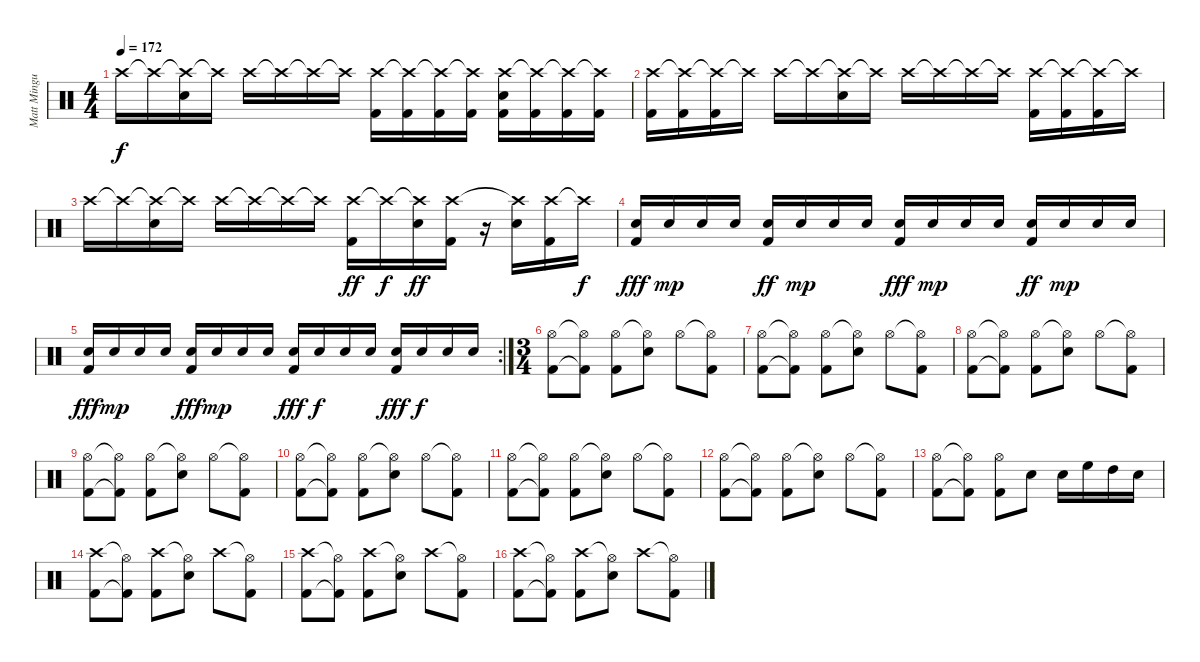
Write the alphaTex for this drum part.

\track ("Matt Mingus" "Matt Mingu") {instrument percussion}
\staff {score}
\articulation defaults
\ts (4 4)
\tempo 172
\clef neutral
\ks c "Crash high (hit)".16{dy f} "Crash high (hit)"{t}.16
("Crash high (hit)"{t} "Electric Snare (hit)").16 "Crash high (hit)"{t}.16 "Crash high (hit)".16 "Crash high (hit)"{t}.16 "Crash high (hit)"{t}.16 "Crash high (hit)"{t}.16 ("Crash high (hit)" "Kick (hit) 2").16 ("Crash high (hit)"{t} "Kick (hit) 2").16 ("Crash high (hit)"{t} "Kick (hit) 2").16 ("Crash high (hit)"{t} "Kick (hit) 2").16 ("Crash high (hit)" "Electric Snare (hit)" "Kick (hit) 2").16 ("Crash high (hit)"{t} "Kick (hit) 2").16 ("Crash high (hit)"{t} "Kick (hit) 2").16 ("Crash high (hit)"{t} "Kick (hit) 2").16 |
("Crash high (hit)" "Kick (hit) 2").16 ("Crash high (hit)"{t} "Kick (hit) 2").16 ("Crash high (hit)"{t} "Kick (hit) 2").16 "Crash high (hit)"{t}.16 "Crash high (hit)".16 "Crash high (hit)"{t}.16 ("Crash high (hit)"{t} "Electric Snare (hit)").16 "Crash high (hit)"{t}.16 "Crash high (hit)".16 "Crash high (hit)"{t}.16 "Crash high (hit)"{t}.16 "Crash high (hit)"{t}.16 ("Crash high (hit)" "Kick (hit) 2").16 ("Crash high (hit)"{t} "Kick (hit) 2").16 ("Crash high (hit)"{t} "Kick (hit) 2").16 "Crash high (hit)"{t}.16 |
"Crash high (hit)".16 "Crash high (hit)"{t}.16 ("Crash high (hit)"{t} "Electric Snare (hit)").16 "Crash high (hit)"{t}.16 "Crash high (hit)".16 "Crash high (hit)"{t}.16 "Crash high (hit)"{t}.16 "Crash high (hit)"{t}.16 ("Crash high (hit)" "Kick (hit) 2").16{dy ff} "Crash high (hit)"{t}.16{dy f} ("Crash high (hit)"{t} "Electric Snare (hit)").16{dy ff} ("Crash high (hit)" "Kick (hit) 2").16 r.16 ("Crash high (hit)"{t} "Electric Snare (hit)").16 ("Crash high (hit)" "Kick (hit) 2").16 "Crash high (hit)"{t}.16{dy f} |
("Electric Snare (hit)" "Kick (hit) 2").16{dy fff} "Electric Snare (hit)".16{dy mp} "Electric Snare (hit)".16 "Electric Snare (hit)".16 ("Electric Snare (hit)" "Kick (hit) 2").16{dy ff} "Electric Snare (hit)".16{dy mp} "Electric Snare (hit)".16 "Electric Snare (hit)".16 ("Electric Snare (hit)" "Kick (hit) 2").16{dy fff} "Electric Snare (hit)".16{dy mp} "Electric Snare (hit)".16 "Electric Snare (hit)".16 ("Electric Snare (hit)" "Kick (hit) 2").16{dy ff} "Electric Snare (hit)".16{dy mp} "Electric Snare (hit)".16 "Electric Snare (hit)".16 |
\rc 2
("Electric Snare (hit)" "Kick (hit) 2").16{dy fff} "Electric Snare (hit)".16{dy mp} "Electric Snare (hit)".16 "Electric Snare (hit)".16 ("Electric Snare (hit)" "Kick (hit) 2").16{dy fff} "Electric Snare (hit)".16{dy mp} "Electric Snare (hit)".16 "Electric Snare (hit)".16 ("Electric Snare (hit)" "Kick (hit) 2").16{dy fff} "Electric Snare (hit)".16{dy f} "Electric Snare (hit)".16 "Electric Snare (hit)".16 ("Electric Snare (hit)" "Kick (hit) 2").16{dy fff} "Electric Snare (hit)".16{dy f} "Electric Snare (hit)".16 "Electric Snare (hit)".16 |
\ts (3 4)
("Hi-Hat (open)" "Kick (hit) 2").8 ("Hi-Hat (open)"{t} "Kick (hit) 2"{t}).8 ("Hi-Hat (open)" "Kick (hit) 2").8 ("Hi-Hat (open)"{t} "Electric Snare (hit)").8 "Hi-Hat (open)".8 ("Hi-Hat (open)"{t} "Kick (hit) 2").8 |
("Hi-Hat (open)" "Kick (hit) 2").8 ("Hi-Hat (open)"{t} "Kick (hit) 2"{t}).8 ("Hi-Hat (open)" "Kick (hit) 2").8 ("Hi-Hat (open)"{t} "Electric Snare (hit)").8 "Hi-Hat (open)".8 ("Hi-Hat (open)"{t} "Kick (hit) 2").8 |
("Hi-Hat (open)" "Kick (hit) 2").8 ("Hi-Hat (open)"{t} "Kick (hit) 2"{t}).8 ("Hi-Hat (open)" "Kick (hit) 2").8 ("Hi-Hat (open)"{t} "Electric Snare (hit)").8 "Hi-Hat (open)".8 ("Hi-Hat (open)"{t} "Kick (hit) 2").8 |
("Hi-Hat (open)" "Kick (hit) 2").8 ("Hi-Hat (open)"{t} "Kick (hit) 2"{t}).8 ("Hi-Hat (open)" "Kick (hit) 2").8 ("Hi-Hat (open)"{t} "Electric Snare (hit)").8 "Hi-Hat (open)".8 ("Hi-Hat (open)"{t} "Kick (hit) 2").8 |
("Hi-Hat (open)" "Kick (hit) 2").8 ("Hi-Hat (open)"{t} "Kick (hit) 2"{t}).8 ("Hi-Hat (open)" "Kick (hit) 2").8 ("Hi-Hat (open)"{t} "Electric Snare (hit)").8 "Hi-Hat (open)".8 ("Hi-Hat (open)"{t} "Kick (hit) 2").8 |
("Hi-Hat (open)" "Kick (hit) 2").8 ("Hi-Hat (open)"{t} "Kick (hit) 2"{t}).8 ("Hi-Hat (open)" "Kick (hit) 2").8 ("Hi-Hat (open)"{t} "Electric Snare (hit)").8 "Hi-Hat (open)".8 ("Hi-Hat (open)"{t} "Kick (hit) 2").8 |
("Hi-Hat (open)" "Kick (hit) 2").8 ("Hi-Hat (open)"{t} "Kick (hit) 2"{t}).8 ("Hi-Hat (open)" "Kick (hit) 2").8 ("Hi-Hat (open)"{t} "Electric Snare (hit)").8 "Hi-Hat (open)".8 ("Hi-Hat (open)"{t} "Kick (hit) 2").8 |
("Hi-Hat (open)" "Kick (hit) 2").8 ("Hi-Hat (open)"{t} "Kick (hit) 2"{t}).8 ("Hi-Hat (open)" "Kick (hit) 2").8 "Electric Snare (hit)".8 "Electric Snare (hit)".16 "High Floor Tom (hit)".16 "High Tom (hit)".16 "Electric Snare (hit)".16 |
("Crash high (hit)" "Kick (hit) 2").8 ("Hi-Hat (open)"{t} "Kick (hit) 2"{t}).8 ("Crash high (hit)" "Kick (hit) 2").8 ("Hi-Hat (open)"{t} "Electric Snare (hit)").8 "Crash high (hit)".8 ("Hi-Hat (open)"{t} "Kick (hit) 2").8 |
("Crash high (hit)" "Kick (hit) 2").8 ("Hi-Hat (open)"{t} "Kick (hit) 2"{t}).8 ("Crash high (hit)" "Kick (hit) 2").8 ("Hi-Hat (open)"{t} "Electric Snare (hit)").8 "Crash high (hit)".8 ("Hi-Hat (open)"{t} "Kick (hit) 2").8 |
("Crash high (hit)" "Kick (hit) 2").8 ("Hi-Hat (open)"{t} "Kick (hit) 2"{t}).8 ("Crash high (hit)" "Kick (hit) 2").8 ("Hi-Hat (open)"{t} "Electric Snare (hit)").8 "Crash high (hit)".8 ("Hi-Hat (open)"{t} "Kick (hit) 2").8
